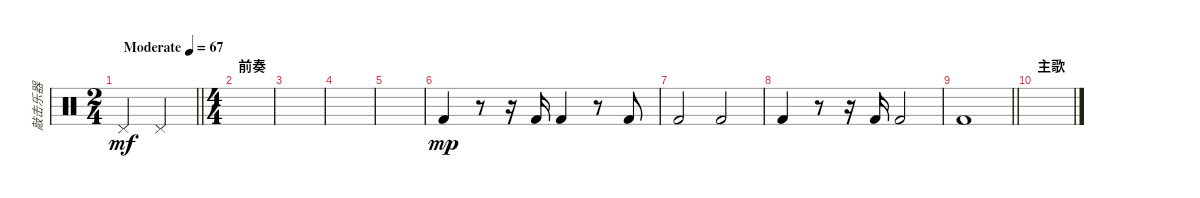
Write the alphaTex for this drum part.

\track ("敲击乐器" "敲击乐器") {instrument percussion}
\staff {score}
\articulation defaults
\ts (2 4)
\tempo (67 "Moderate")
\clef neutral
\barLineRight lightlight
\ks c "Pedal Hi-Hat (hit)".4{dy mf} "Pedal Hi-Hat (hit)".4
|
\ts (4 4)
\section ("" "前奏")
|
|
|
|
"Kick (hit) 2".4{dy mp} r.8 r.16 "Kick (hit) 2".16 "Kick (hit) 2".4 r.8 "Kick (hit) 2".8 |
"Kick (hit) 2".2 "Kick (hit) 2".2 |
"Kick (hit) 2".4 r.8 r.16 "Kick (hit) 2".16 "Kick (hit) 2".2 |
\barLineRight lightlight "Kick (hit) 2".1
|
\section ("" "主歌")
